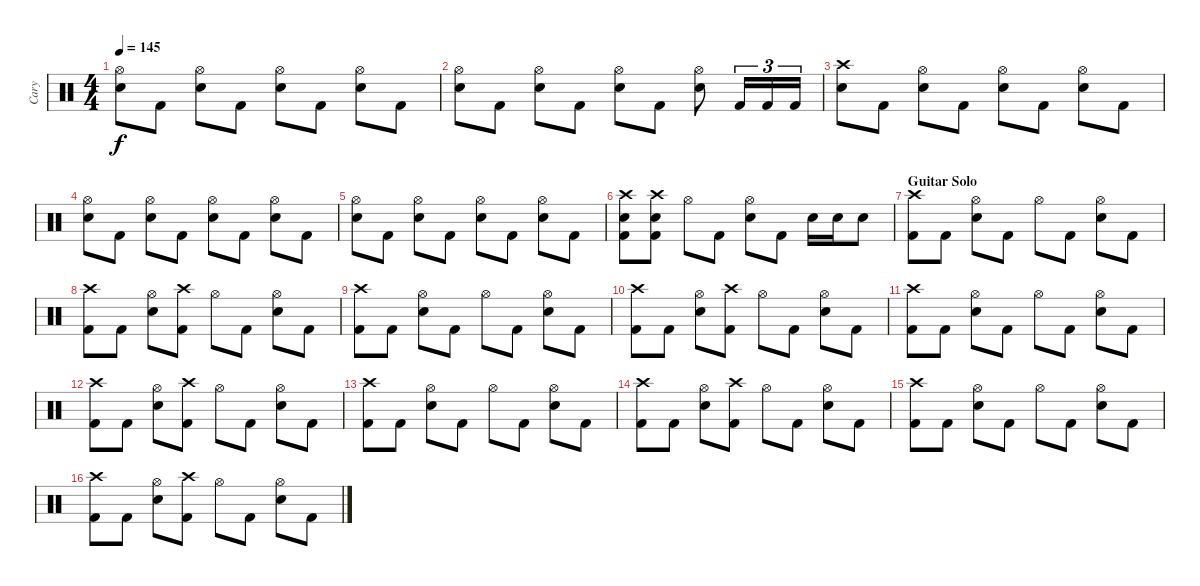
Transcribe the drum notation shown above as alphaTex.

\track ("Cary" "Cary") {instrument percussion}
\staff {score}
\articulation defaults
\ts (4 4)
\tempo 145
\clef neutral
\ks c
("Hi-Hat (open)" "Electric Snare (hit)").8{dy f} "Kick (hit) 2".8 ("Hi-Hat (open)" "Electric Snare (hit)").8 "Kick (hit) 2".8 ("Hi-Hat (open)" "Electric Snare (hit)").8 "Kick (hit) 2".8 ("Hi-Hat (open)" "Electric Snare (hit)").8 "Kick (hit) 2".8 |
("Hi-Hat (open)" "Electric Snare (hit)").8 "Kick (hit) 2".8 ("Hi-Hat (open)" "Electric Snare (hit)").8 "Kick (hit) 2".8 ("Hi-Hat (open)" "Electric Snare (hit)").8 "Kick (hit) 2".8 ("Hi-Hat (open)" "Electric Snare (hit)").8 "Kick (hit) 2".16{tu (3 2)} "Kick (hit) 2".16{tu (3 2)} "Kick (hit) 2".16{tu (3 2)} |
("Crash high (hit)" "Electric Snare (hit)").8 "Kick (hit) 2".8 ("Hi-Hat (open)" "Electric Snare (hit)").8 "Kick (hit) 2".8 ("Hi-Hat (open)" "Electric Snare (hit)").8 "Kick (hit) 2".8 ("Hi-Hat (open)" "Electric Snare (hit)").8 "Kick (hit) 2".8 |
("Hi-Hat (open)" "Electric Snare (hit)").8 "Kick (hit) 2".8 ("Hi-Hat (open)" "Electric Snare (hit)").8 "Kick (hit) 2".8 ("Hi-Hat (open)" "Electric Snare (hit)").8 "Kick (hit) 2".8 ("Hi-Hat (open)" "Electric Snare (hit)").8 "Kick (hit) 2".8 |
("Hi-Hat (open)" "Electric Snare (hit)").8 "Kick (hit) 2".8 ("Hi-Hat (open)" "Electric Snare (hit)").8 "Kick (hit) 2".8 ("Hi-Hat (open)" "Electric Snare (hit)").8 "Kick (hit) 2".8 ("Hi-Hat (open)" "Electric Snare (hit)").8 "Kick (hit) 2".8 |
("Crash high (hit)" "Electric Snare (hit)" "Kick (hit) 2").8 ("Crash high (hit)" "Electric Snare (hit)" "Kick (hit) 2").8 "Hi-Hat (open)".8 "Kick (hit) 2".8 ("Hi-Hat (open)" "Electric Snare (hit)").8 "Kick (hit) 2".8 "Electric Snare (hit)".16 "Electric Snare (hit)".16 "Electric Snare (hit)".8 |
\section ("" "Guitar Solo")
("Crash high (hit)" "Kick (hit) 2").8 "Kick (hit) 2".8 ("Hi-Hat (open)" "Electric Snare (hit)").8 "Kick (hit) 2".8 "Hi-Hat (open)".8 "Kick (hit) 2".8 ("Hi-Hat (open)" "Electric Snare (hit)").8 "Kick (hit) 2".8 |
("Crash high (hit)" "Kick (hit) 2").8 "Kick (hit) 2".8 ("Hi-Hat (open)" "Electric Snare (hit)").8 ("Crash high (hit)" "Kick (hit) 2").8 "Hi-Hat (open)".8 "Kick (hit) 2".8 ("Hi-Hat (open)" "Electric Snare (hit)").8 "Kick (hit) 2".8 |
("Crash high (hit)" "Kick (hit) 2").8 "Kick (hit) 2".8 ("Hi-Hat (open)" "Electric Snare (hit)").8 "Kick (hit) 2".8 "Hi-Hat (open)".8 "Kick (hit) 2".8 ("Hi-Hat (open)" "Electric Snare (hit)").8 "Kick (hit) 2".8 |
("Crash high (hit)" "Kick (hit) 2").8 "Kick (hit) 2".8 ("Hi-Hat (open)" "Electric Snare (hit)").8 ("Crash high (hit)" "Kick (hit) 2").8 "Hi-Hat (open)".8 "Kick (hit) 2".8 ("Hi-Hat (open)" "Electric Snare (hit)").8 "Kick (hit) 2".8 |
("Crash high (hit)" "Kick (hit) 2").8 "Kick (hit) 2".8 ("Hi-Hat (open)" "Electric Snare (hit)").8 "Kick (hit) 2".8 "Hi-Hat (open)".8 "Kick (hit) 2".8 ("Hi-Hat (open)" "Electric Snare (hit)").8 "Kick (hit) 2".8 |
("Crash high (hit)" "Kick (hit) 2").8 "Kick (hit) 2".8 ("Hi-Hat (open)" "Electric Snare (hit)").8 ("Crash high (hit)" "Kick (hit) 2").8 "Hi-Hat (open)".8 "Kick (hit) 2".8 ("Hi-Hat (open)" "Electric Snare (hit)").8 "Kick (hit) 2".8 |
("Crash high (hit)" "Kick (hit) 2").8 "Kick (hit) 2".8 ("Hi-Hat (open)" "Electric Snare (hit)").8 "Kick (hit) 2".8 "Hi-Hat (open)".8 "Kick (hit) 2".8 ("Hi-Hat (open)" "Electric Snare (hit)").8 "Kick (hit) 2".8 |
("Crash high (hit)" "Kick (hit) 2").8 "Kick (hit) 2".8 ("Hi-Hat (open)" "Electric Snare (hit)").8 ("Crash high (hit)" "Kick (hit) 2").8 "Hi-Hat (open)".8 "Kick (hit) 2".8 ("Hi-Hat (open)" "Electric Snare (hit)").8 "Kick (hit) 2".8 |
("Crash high (hit)" "Kick (hit) 2").8 "Kick (hit) 2".8 ("Hi-Hat (open)" "Electric Snare (hit)").8 "Kick (hit) 2".8 "Hi-Hat (open)".8 "Kick (hit) 2".8 ("Hi-Hat (open)" "Electric Snare (hit)").8 "Kick (hit) 2".8 |
("Crash high (hit)" "Kick (hit) 2").8 "Kick (hit) 2".8 ("Hi-Hat (open)" "Electric Snare (hit)").8 ("Crash high (hit)" "Kick (hit) 2").8 "Hi-Hat (open)".8 "Kick (hit) 2".8 ("Hi-Hat (open)" "Electric Snare (hit)").8 "Kick (hit) 2".8
